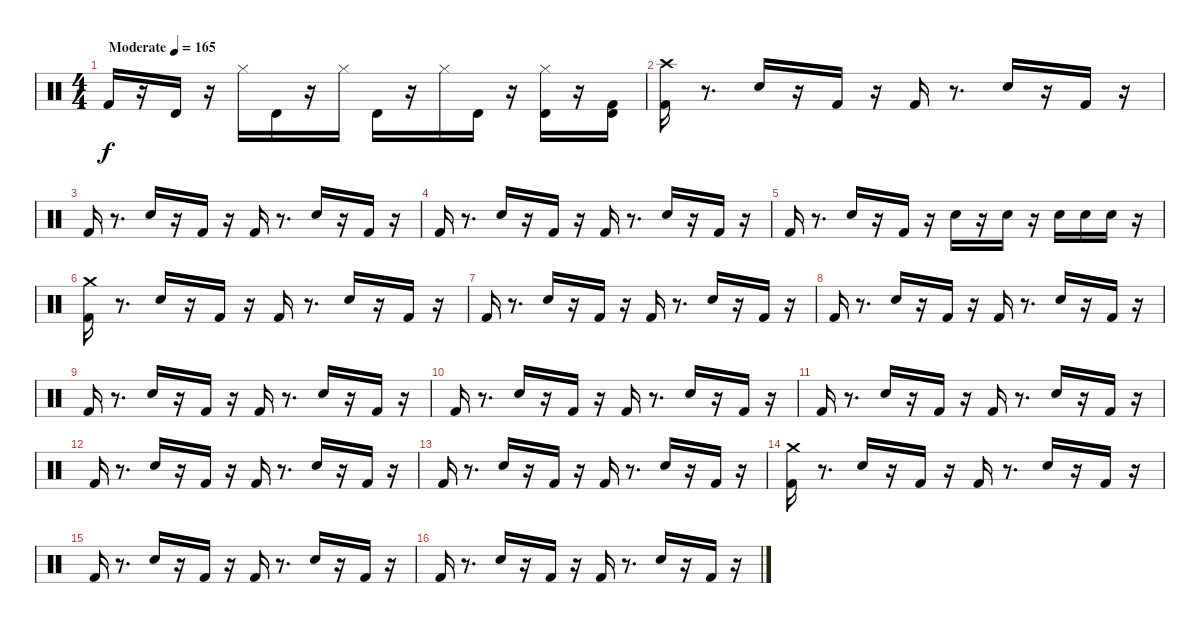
\track "" {instrument percussion}
\staff {score}
\articulation defaults
\ts (4 4)
\tempo (165 "Moderate")
\clef neutral
\ks c "Kick (hit) 2".16{dy f}
r.16 "Timbale high (hit)".16 r.16 "Hi-Hat (closed)".16 "Timbale high (hit)".16 r.16 "Hi-Hat (closed)".16 "Timbale high (hit)".16 r.16 "Hi-Hat (closed)".16 "Timbale high (hit)".16 r.16 ("Hi-Hat (closed)" "Timbale high (hit)").16 r.16 ("Kick (hit) 2" "Timbale high (hit)").16 |
("Crash high (hit)" "Kick (hit) 2").16 r.8{d} "Snare (hit) 2".16 r.16 "Kick (hit) 2".16 r.16 "Kick (hit) 2".16 r.8{d} "Snare (hit) 2".16 r.16 "Kick (hit) 2".16 r.16 |
"Kick (hit) 2".16 r.8{d} "Snare (hit) 2".16 r.16 "Kick (hit) 2".16 r.16 "Kick (hit) 2".16 r.8{d} "Snare (hit) 2".16 r.16 "Kick (hit) 2".16 r.16 |
"Kick (hit) 2".16 r.8{d} "Snare (hit) 2".16 r.16 "Kick (hit) 2".16 r.16 "Kick (hit) 2".16 r.8{d} "Snare (hit) 2".16 r.16 "Kick (hit) 2".16 r.16 |
"Kick (hit) 2".16 r.8{d} "Snare (hit) 2".16 r.16 "Kick (hit) 2".16 r.16 "Snare (hit) 2".16 r.16 "Snare (hit) 2".16 r.16 "Snare (hit) 2".16 "Snare (hit) 2".16 "Snare (hit) 2".16 r.16 |
("Crash medium (hit)" "Kick (hit) 2").16 r.8{d} "Snare (hit) 2".16 r.16 "Kick (hit) 2".16 r.16 "Kick (hit) 2".16 r.8{d} "Snare (hit) 2".16 r.16 "Kick (hit) 2".16 r.16 |
"Kick (hit) 2".16 r.8{d} "Snare (hit) 2".16 r.16 "Kick (hit) 2".16 r.16 "Kick (hit) 2".16 r.8{d} "Snare (hit) 2".16 r.16 "Kick (hit) 2".16 r.16 |
"Kick (hit) 2".16 r.8{d} "Snare (hit) 2".16 r.16 "Kick (hit) 2".16 r.16 "Kick (hit) 2".16 r.8{d} "Snare (hit) 2".16 r.16 "Kick (hit) 2".16 r.16 |
"Kick (hit) 2".16 r.8{d} "Snare (hit) 2".16 r.16 "Kick (hit) 2".16 r.16 "Kick (hit) 2".16 r.8{d} "Snare (hit) 2".16 r.16 "Kick (hit) 2".16 r.16 |
"Kick (hit) 2".16 r.8{d} "Snare (hit) 2".16 r.16 "Kick (hit) 2".16 r.16 "Kick (hit) 2".16 r.8{d} "Snare (hit) 2".16 r.16 "Kick (hit) 2".16 r.16 |
"Kick (hit) 2".16 r.8{d} "Snare (hit) 2".16 r.16 "Kick (hit) 2".16 r.16 "Kick (hit) 2".16 r.8{d} "Snare (hit) 2".16 r.16 "Kick (hit) 2".16 r.16 |
"Kick (hit) 2".16 r.8{d} "Snare (hit) 2".16 r.16 "Kick (hit) 2".16 r.16 "Kick (hit) 2".16 r.8{d} "Snare (hit) 2".16 r.16 "Kick (hit) 2".16 r.16 |
"Kick (hit) 2".16 r.8{d} "Snare (hit) 2".16 r.16 "Kick (hit) 2".16 r.16 "Kick (hit) 2".16 r.8{d} "Snare (hit) 2".16 r.16 "Kick (hit) 2".16 r.16 |
("Crash medium (hit)" "Kick (hit) 2").16 r.8{d} "Snare (hit) 2".16 r.16 "Kick (hit) 2".16 r.16 "Kick (hit) 2".16 r.8{d} "Snare (hit) 2".16 r.16 "Kick (hit) 2".16 r.16 |
"Kick (hit) 2".16 r.8{d} "Snare (hit) 2".16 r.16 "Kick (hit) 2".16 r.16 "Kick (hit) 2".16 r.8{d} "Snare (hit) 2".16 r.16 "Kick (hit) 2".16 r.16 |
"Kick (hit) 2".16 r.8{d} "Snare (hit) 2".16 r.16 "Kick (hit) 2".16 r.16 "Kick (hit) 2".16 r.8{d} "Snare (hit) 2".16 r.16 "Kick (hit) 2".16 r.16
